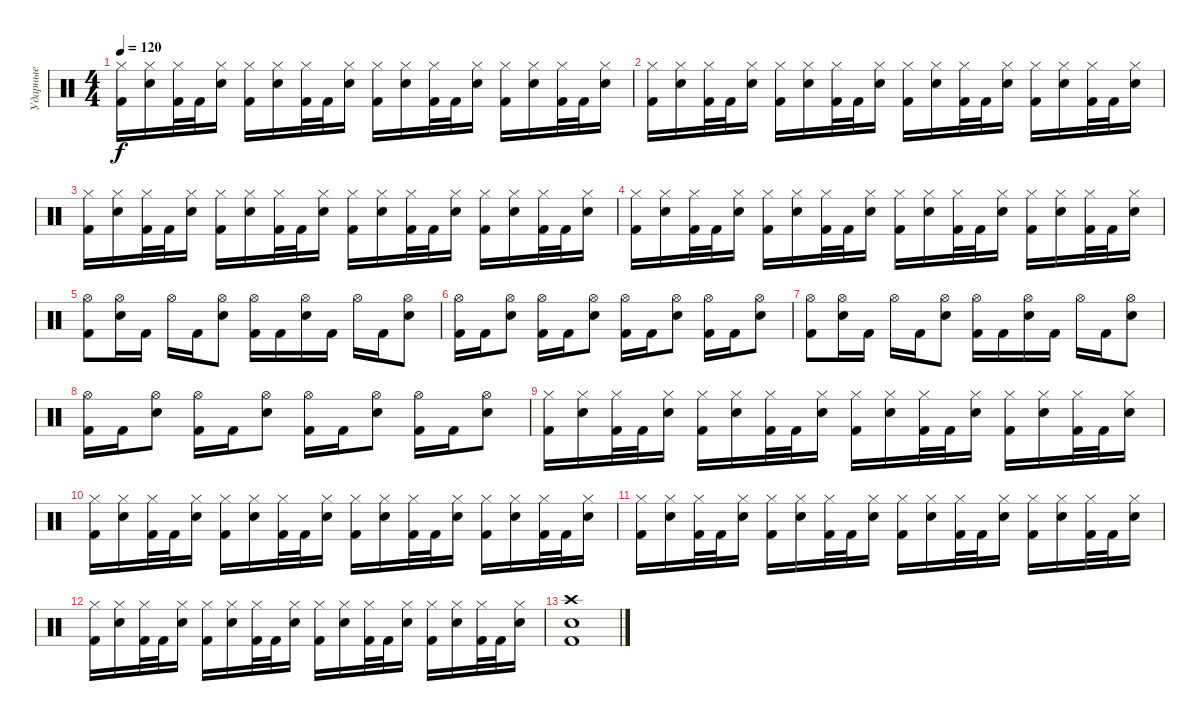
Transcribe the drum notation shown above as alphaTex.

\track ("Ударные" "Ударные") {instrument percussion}
\staff {score}
\articulation defaults
\ts (4 4)
\tempo 120
\clef neutral
\ks c
("Hi-Hat (closed)" "Kick (hit) 2").16{dy f} ("Hi-Hat (closed)" "Electric Snare (hit)").16 ("Hi-Hat (closed)" "Kick (hit) 2").32 "Kick (hit) 2".32 ("Hi-Hat (closed)" "Electric Snare (hit)").16 ("Hi-Hat (closed)" "Kick (hit) 2").16 ("Hi-Hat (closed)" "Electric Snare (hit)").16 ("Hi-Hat (closed)" "Kick (hit) 2").32 "Kick (hit) 2".32 ("Hi-Hat (closed)" "Electric Snare (hit)").16 ("Hi-Hat (closed)" "Kick (hit) 2").16 ("Hi-Hat (closed)" "Electric Snare (hit)").16 ("Hi-Hat (closed)" "Kick (hit) 2").32 "Kick (hit) 2".32 ("Hi-Hat (closed)" "Electric Snare (hit)").16 ("Hi-Hat (closed)" "Kick (hit) 2").16 ("Hi-Hat (closed)" "Electric Snare (hit)").16 ("Hi-Hat (closed)" "Kick (hit) 2").32 "Kick (hit) 2".32 ("Hi-Hat (closed)" "Electric Snare (hit)").16 |
("Hi-Hat (closed)" "Kick (hit) 2").16 ("Hi-Hat (closed)" "Electric Snare (hit)").16 ("Hi-Hat (closed)" "Kick (hit) 2").32 "Kick (hit) 2".32 ("Hi-Hat (closed)" "Electric Snare (hit)").16 ("Hi-Hat (closed)" "Kick (hit) 2").16 ("Hi-Hat (closed)" "Electric Snare (hit)").16 ("Hi-Hat (closed)" "Kick (hit) 2").32 "Kick (hit) 2".32 ("Hi-Hat (closed)" "Electric Snare (hit)").16 ("Hi-Hat (closed)" "Kick (hit) 2").16 ("Hi-Hat (closed)" "Electric Snare (hit)").16 ("Hi-Hat (closed)" "Kick (hit) 2").32 "Kick (hit) 2".32 ("Hi-Hat (closed)" "Electric Snare (hit)").16 ("Hi-Hat (closed)" "Kick (hit) 2").16 ("Hi-Hat (closed)" "Electric Snare (hit)").16 ("Hi-Hat (closed)" "Kick (hit) 2").32 "Kick (hit) 2".32 ("Hi-Hat (closed)" "Electric Snare (hit)").16 |
("Hi-Hat (closed)" "Kick (hit) 2").16 ("Hi-Hat (closed)" "Electric Snare (hit)").16 ("Hi-Hat (closed)" "Kick (hit) 2").32 "Kick (hit) 2".32 ("Hi-Hat (closed)" "Electric Snare (hit)").16 ("Hi-Hat (closed)" "Kick (hit) 2").16 ("Hi-Hat (closed)" "Electric Snare (hit)").16 ("Hi-Hat (closed)" "Kick (hit) 2").32 "Kick (hit) 2".32 ("Hi-Hat (closed)" "Electric Snare (hit)").16 ("Hi-Hat (closed)" "Kick (hit) 2").16 ("Hi-Hat (closed)" "Electric Snare (hit)").16 ("Hi-Hat (closed)" "Kick (hit) 2").32 "Kick (hit) 2".32 ("Hi-Hat (closed)" "Electric Snare (hit)").16 ("Hi-Hat (closed)" "Kick (hit) 2").16 ("Hi-Hat (closed)" "Electric Snare (hit)").16 ("Hi-Hat (closed)" "Kick (hit) 2").32 "Kick (hit) 2".32 ("Hi-Hat (closed)" "Electric Snare (hit)").16 |
("Hi-Hat (closed)" "Kick (hit) 2").16 ("Hi-Hat (closed)" "Electric Snare (hit)").16 ("Hi-Hat (closed)" "Kick (hit) 2").32 "Kick (hit) 2".32 ("Hi-Hat (closed)" "Electric Snare (hit)").16 ("Hi-Hat (closed)" "Kick (hit) 2").16 ("Hi-Hat (closed)" "Electric Snare (hit)").16 ("Hi-Hat (closed)" "Kick (hit) 2").32 "Kick (hit) 2".32 ("Hi-Hat (closed)" "Electric Snare (hit)").16 ("Hi-Hat (closed)" "Kick (hit) 2").16 ("Hi-Hat (closed)" "Electric Snare (hit)").16 ("Hi-Hat (closed)" "Kick (hit) 2").32 "Kick (hit) 2".32 ("Hi-Hat (closed)" "Electric Snare (hit)").16 ("Hi-Hat (closed)" "Kick (hit) 2").16 ("Hi-Hat (closed)" "Electric Snare (hit)").16 ("Hi-Hat (closed)" "Kick (hit) 2").32 "Kick (hit) 2".32 ("Hi-Hat (closed)" "Electric Snare (hit)").16 |
("Hi-Hat (open)" "Kick (hit) 2").8 ("Hi-Hat (open)" "Electric Snare (hit)").16 "Kick (hit) 2".16 "Hi-Hat (open)".16 "Kick (hit) 2".16 ("Hi-Hat (open)" "Electric Snare (hit)").8 ("Hi-Hat (open)" "Kick (hit) 2").16 "Kick (hit) 2".16 ("Hi-Hat (open)" "Electric Snare (hit)").16 "Kick (hit) 2".16 "Hi-Hat (open)".16 "Kick (hit) 2".16 ("Hi-Hat (open)" "Electric Snare (hit)").8 |
("Hi-Hat (open)" "Kick (hit) 2").16 "Kick (hit) 2".16 ("Hi-Hat (open)" "Electric Snare (hit)").8 ("Hi-Hat (open)" "Kick (hit) 2").16 "Kick (hit) 2".16 ("Hi-Hat (open)" "Electric Snare (hit)").8 ("Hi-Hat (open)" "Kick (hit) 2").16 "Kick (hit) 2".16 ("Hi-Hat (open)" "Electric Snare (hit)").8 ("Hi-Hat (open)" "Kick (hit) 2").16 "Kick (hit) 2".16 ("Hi-Hat (open)" "Electric Snare (hit)").8 |
("Hi-Hat (open)" "Kick (hit) 2").8 ("Hi-Hat (open)" "Electric Snare (hit)").16 "Kick (hit) 2".16 "Hi-Hat (open)".16 "Kick (hit) 2".16 ("Hi-Hat (open)" "Electric Snare (hit)").8 ("Hi-Hat (open)" "Kick (hit) 2").16 "Kick (hit) 2".16 ("Hi-Hat (open)" "Electric Snare (hit)").16 "Kick (hit) 2".16 "Hi-Hat (open)".16 "Kick (hit) 2".16 ("Hi-Hat (open)" "Electric Snare (hit)").8 |
("Hi-Hat (open)" "Kick (hit) 2").16 "Kick (hit) 2".16 ("Hi-Hat (open)" "Electric Snare (hit)").8 ("Hi-Hat (open)" "Kick (hit) 2").16 "Kick (hit) 2".16 ("Hi-Hat (open)" "Electric Snare (hit)").8 ("Hi-Hat (open)" "Kick (hit) 2").16 "Kick (hit) 2".16 ("Hi-Hat (open)" "Electric Snare (hit)").8 ("Hi-Hat (open)" "Kick (hit) 2").16 "Kick (hit) 2".16 ("Hi-Hat (open)" "Electric Snare (hit)").8 |
("Hi-Hat (closed)" "Kick (hit) 2").16 ("Hi-Hat (closed)" "Electric Snare (hit)").16 ("Hi-Hat (closed)" "Kick (hit) 2").32 "Kick (hit) 2".32 ("Hi-Hat (closed)" "Electric Snare (hit)").16 ("Hi-Hat (closed)" "Kick (hit) 2").16 ("Hi-Hat (closed)" "Electric Snare (hit)").16 ("Hi-Hat (closed)" "Kick (hit) 2").32 "Kick (hit) 2".32 ("Hi-Hat (closed)" "Electric Snare (hit)").16 ("Hi-Hat (closed)" "Kick (hit) 2").16 ("Hi-Hat (closed)" "Electric Snare (hit)").16 ("Hi-Hat (closed)" "Kick (hit) 2").32 "Kick (hit) 2".32 ("Hi-Hat (closed)" "Electric Snare (hit)").16 ("Hi-Hat (closed)" "Kick (hit) 2").16 ("Hi-Hat (closed)" "Electric Snare (hit)").16 ("Hi-Hat (closed)" "Kick (hit) 2").32 "Kick (hit) 2".32 ("Hi-Hat (closed)" "Electric Snare (hit)").16 |
("Hi-Hat (closed)" "Kick (hit) 2").16 ("Hi-Hat (closed)" "Electric Snare (hit)").16 ("Hi-Hat (closed)" "Kick (hit) 2").32 "Kick (hit) 2".32 ("Hi-Hat (closed)" "Electric Snare (hit)").16 ("Hi-Hat (closed)" "Kick (hit) 2").16 ("Hi-Hat (closed)" "Electric Snare (hit)").16 ("Hi-Hat (closed)" "Kick (hit) 2").32 "Kick (hit) 2".32 ("Hi-Hat (closed)" "Electric Snare (hit)").16 ("Hi-Hat (closed)" "Kick (hit) 2").16 ("Hi-Hat (closed)" "Electric Snare (hit)").16 ("Hi-Hat (closed)" "Kick (hit) 2").32 "Kick (hit) 2".32 ("Hi-Hat (closed)" "Electric Snare (hit)").16 ("Hi-Hat (closed)" "Kick (hit) 2").16 ("Hi-Hat (closed)" "Electric Snare (hit)").16 ("Hi-Hat (closed)" "Kick (hit) 2").32 "Kick (hit) 2".32 ("Hi-Hat (closed)" "Electric Snare (hit)").16 |
("Hi-Hat (closed)" "Kick (hit) 2").16 ("Hi-Hat (closed)" "Electric Snare (hit)").16 ("Hi-Hat (closed)" "Kick (hit) 2").32 "Kick (hit) 2".32 ("Hi-Hat (closed)" "Electric Snare (hit)").16 ("Hi-Hat (closed)" "Kick (hit) 2").16 ("Hi-Hat (closed)" "Electric Snare (hit)").16 ("Hi-Hat (closed)" "Kick (hit) 2").32 "Kick (hit) 2".32 ("Hi-Hat (closed)" "Electric Snare (hit)").16 ("Hi-Hat (closed)" "Kick (hit) 2").16 ("Hi-Hat (closed)" "Electric Snare (hit)").16 ("Hi-Hat (closed)" "Kick (hit) 2").32 "Kick (hit) 2".32 ("Hi-Hat (closed)" "Electric Snare (hit)").16 ("Hi-Hat (closed)" "Kick (hit) 2").16 ("Hi-Hat (closed)" "Electric Snare (hit)").16 ("Hi-Hat (closed)" "Kick (hit) 2").32 "Kick (hit) 2".32 ("Hi-Hat (closed)" "Electric Snare (hit)").16 |
("Hi-Hat (closed)" "Kick (hit) 2").16 ("Hi-Hat (closed)" "Electric Snare (hit)").16 ("Hi-Hat (closed)" "Kick (hit) 2").32 "Kick (hit) 2".32 ("Hi-Hat (closed)" "Electric Snare (hit)").16 ("Hi-Hat (closed)" "Kick (hit) 2").16 ("Hi-Hat (closed)" "Electric Snare (hit)").16 ("Hi-Hat (closed)" "Kick (hit) 2").32 "Kick (hit) 2".32 ("Hi-Hat (closed)" "Electric Snare (hit)").16 ("Hi-Hat (closed)" "Kick (hit) 2").16 ("Hi-Hat (closed)" "Electric Snare (hit)").16 ("Hi-Hat (closed)" "Kick (hit) 2").32 "Kick (hit) 2".32 ("Hi-Hat (closed)" "Electric Snare (hit)").16 ("Hi-Hat (closed)" "Kick (hit) 2").16 ("Hi-Hat (closed)" "Electric Snare (hit)").16 ("Hi-Hat (closed)" "Kick (hit) 2").32 "Kick (hit) 2".32 ("Hi-Hat (closed)" "Electric Snare (hit)").16 |
("Crash high (hit)" "Electric Snare (hit)" "Kick (hit) 2").1
